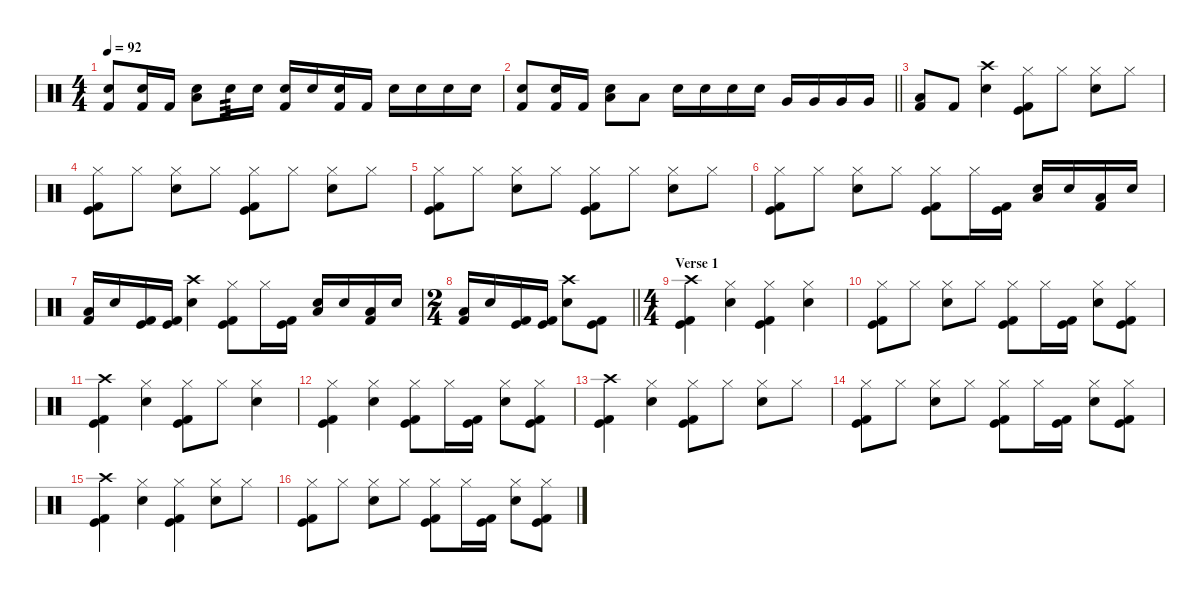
\defaultSystemsLayout 4
\hideDynamics
\bracketExtendMode nobrackets
\singleTrackTrackNamePolicy hidden
\multiTrackTrackNamePolicy hidden
\otherSystemsTrackNameOrientation horizontal
\track ("Lars" "drm.") {instrument percussion}
\staff {score}
\articulation defaults
\ts (4 4)
\tempo 92
\clef neutral
\ks c
("Snare (hit) 2" "Kick (hit) 2").8{dy f beam Up} ("Snare (hit) 2" "Kick (hit) 2").16{beam Up} "Kick (hit) 2".16{beam Up} ("Snare (hit) 2" "Low Tom (hit)").8{beam Down} "Snare (hit) 2".16{tp 3 beam Down} "Snare (hit) 2".16{beam Down} ("Snare (hit) 2" "Kick (hit) 2").16{beam Up} "Snare (hit) 2".16{beam Up} ("Snare (hit) 2" "Kick (hit) 2").16{beam Up} "Kick (hit) 2".16{beam Up} "Snare (hit) 2".16{beam Down} "Snare (hit) 2".16{beam Down} "Snare (hit) 2".16{beam Down} "Snare (hit) 2".16{beam Down} |
\barLineRight lightlight
("Snare (hit) 2" "Kick (hit) 2").8{beam Up} ("Snare (hit) 2" "Kick (hit) 2").16{beam Up} "Kick (hit) 2".16{beam Up} ("Snare (hit) 2" "Low Tom (hit)").8{beam Down} "Low Tom (hit)".8{beam Down} "Snare (hit) 2".16{beam Down} "Snare (hit) 2".16{beam Down} "Snare (hit) 2".16{beam Down} "Snare (hit) 2".16{beam Down} "Very Low Tom (hit)".16{beam Up} "Very Low Tom (hit)".16{beam Up} "Very Low Tom (hit)".16{beam Up} "Very Low Tom (hit)".16{beam Up} |
\section ("" "")
("Kick (hit) 2" "Low Tom (hit)").8{beam Up} "Kick (hit) 2".8{beam Up} ("Crash high (hit)" "Snare (hit) 2").4{beam Down} ("Hi-Hat (closed)" "Kick (hit)" "Kick (hit) 2").8{beam Down} "Hi-Hat (closed)".8{beam Down} ("Hi-Hat (closed)" "Snare (hit) 2").8{beam Down} "Hi-Hat (closed)".8{beam Down} |
("Hi-Hat (closed)" "Kick (hit)" "Kick (hit) 2").8{beam Down} "Hi-Hat (closed)".8{beam Down} ("Hi-Hat (closed)" "Snare (hit) 2").8{beam Down} "Hi-Hat (closed)".8{beam Down} ("Hi-Hat (closed)" "Kick (hit)" "Kick (hit) 2").8{beam Down} "Hi-Hat (closed)".8{beam Down} ("Hi-Hat (closed)" "Snare (hit) 2").8{beam Down} "Hi-Hat (closed)".8{beam Down} |
("Hi-Hat (closed)" "Kick (hit)" "Kick (hit) 2").8{beam Down} "Hi-Hat (closed)".8{beam Down} ("Hi-Hat (closed)" "Snare (hit) 2").8{beam Down} "Hi-Hat (closed)".8{beam Down} ("Hi-Hat (closed)" "Kick (hit)" "Kick (hit) 2").8{beam Down} "Hi-Hat (closed)".8{beam Down} ("Hi-Hat (closed)" "Snare (hit) 2").8{beam Down} "Hi-Hat (closed)".8{beam Down} |
("Hi-Hat (closed)" "Kick (hit)" "Kick (hit) 2").8{beam Down} "Hi-Hat (closed)".8{beam Down} ("Hi-Hat (closed)" "Snare (hit) 2").8{beam Down} "Hi-Hat (closed)".8{beam Down} ("Hi-Hat (closed)" "Kick (hit)" "Kick (hit) 2").8{beam Down} "Hi-Hat (closed)".16{beam Down} ("Kick (hit)" "Kick (hit) 2").16{beam Down} ("Snare (hit) 2" "Low Floor Tom (hit)").16{beam Up} "Snare (hit) 2".16{beam Up} ("Kick (hit) 2" "Low Floor Tom (hit)").16{beam Up} "Snare (hit) 2".16{beam Up} |
("Kick (hit) 2" "Low Floor Tom (hit)").16{beam Up} "Snare (hit) 2".16{beam Up} ("Kick (hit)" "Kick (hit) 2").16{beam Up} ("Kick (hit)" "Kick (hit) 2").16{beam Up} ("Crash high (hit)" "Snare (hit) 2").4{beam Down} ("Hi-Hat (closed)" "Kick (hit)" "Kick (hit) 2").8{beam Down} "Hi-Hat (closed)".16{beam Down} ("Kick (hit)" "Kick (hit) 2").16{beam Down} ("Snare (hit) 2" "Low Floor Tom (hit)").16{beam Up} "Snare (hit) 2".16{beam Up} ("Kick (hit) 2" "Low Floor Tom (hit)").16{beam Up} "Snare (hit) 2".16{beam Up} |
\ts (2 4)
\beaming (8 2 2)
\barLineRight lightlight
("Kick (hit) 2" "Low Floor Tom (hit)").16{beam Up} "Snare (hit) 2".16{beam Up} ("Kick (hit)" "Kick (hit) 2").16{beam Up} ("Kick (hit)" "Kick (hit) 2").16{beam Up} ("Crash high (hit)" "Snare (hit) 2").8{beam Down} ("Kick (hit)" "Kick (hit) 2").8{beam Down} |
\ts (4 4)
\beaming (8 2 2 2 2)
\section ("" "Verse 1")
("Crash high (hit)" "Kick (hit)" "Kick (hit) 2").4{beam Down} ("Hi-Hat (closed)" "Snare (hit) 2").4{beam Down} ("Hi-Hat (closed)" "Kick (hit)" "Kick (hit) 2").4{beam Down} ("Hi-Hat (closed)" "Snare (hit) 2").4{beam Down} |
("Hi-Hat (closed)" "Kick (hit)" "Kick (hit) 2").8{beam Down} "Hi-Hat (closed)".8{beam Down} ("Hi-Hat (closed)" "Snare (hit) 2").8{beam Down} "Hi-Hat (closed)".8{beam Down} ("Hi-Hat (closed)" "Kick (hit)" "Kick (hit) 2").8{beam Down} "Hi-Hat (closed)".16{beam Down} ("Kick (hit)" "Kick (hit) 2").16{beam Down} ("Hi-Hat (closed)" "Snare (hit) 2").8{beam Down} ("Hi-Hat (closed)" "Kick (hit)" "Kick (hit) 2").8{beam Down} |
("Crash high (hit)" "Kick (hit)" "Kick (hit) 2").4{beam Down} ("Hi-Hat (closed)" "Snare (hit) 2").4{beam Down} ("Hi-Hat (closed)" "Kick (hit)" "Kick (hit) 2").8{beam Down} "Hi-Hat (closed)".8{beam Down} ("Hi-Hat (closed)" "Snare (hit) 2").4{beam Down} |
("Hi-Hat (closed)" "Kick (hit)" "Kick (hit) 2").4{beam Down} ("Hi-Hat (closed)" "Snare (hit) 2").4{beam Down} ("Hi-Hat (closed)" "Kick (hit)" "Kick (hit) 2").8{beam Down} "Hi-Hat (closed)".16{beam Down} ("Kick (hit)" "Kick (hit) 2").16{beam Down} ("Hi-Hat (closed)" "Snare (hit) 2").8{beam Down} ("Hi-Hat (closed)" "Kick (hit)" "Kick (hit) 2").8{beam Down} |
("Crash high (hit)" "Kick (hit)" "Kick (hit) 2").4{beam Down} ("Hi-Hat (closed)" "Snare (hit) 2").4{beam Down} ("Hi-Hat (closed)" "Kick (hit)" "Kick (hit) 2").8{beam Down} "Hi-Hat (closed)".8{beam Down} ("Hi-Hat (closed)" "Snare (hit) 2").8{beam Down} "Hi-Hat (closed)".8{beam Down} |
("Hi-Hat (closed)" "Kick (hit)" "Kick (hit) 2").8{beam Down} "Hi-Hat (closed)".8{beam Down} ("Hi-Hat (closed)" "Snare (hit) 2").8{beam Down} "Hi-Hat (closed)".8{beam Down} ("Hi-Hat (closed)" "Kick (hit)" "Kick (hit) 2").8{beam Down} "Hi-Hat (closed)".16{beam Down} ("Kick (hit)" "Kick (hit) 2").16{beam Down} ("Hi-Hat (closed)" "Snare (hit) 2").8{beam Down} ("Hi-Hat (closed)" "Kick (hit)" "Kick (hit) 2").8{beam Down} |
("Crash high (hit)" "Kick (hit)" "Kick (hit) 2").4{beam Down} ("Hi-Hat (closed)" "Snare (hit) 2").4{beam Down} ("Hi-Hat (closed)" "Kick (hit)" "Kick (hit) 2").4{beam Down} ("Hi-Hat (closed)" "Snare (hit) 2").8{beam Down} "Hi-Hat (closed)".8{beam Down} |
("Hi-Hat (closed)" "Kick (hit)" "Kick (hit) 2").8{beam Down} "Hi-Hat (closed)".8{beam Down} ("Hi-Hat (closed)" "Snare (hit) 2").8{beam Down} "Hi-Hat (closed)".8{beam Down} ("Hi-Hat (closed)" "Kick (hit)" "Kick (hit) 2").8{beam Down} "Hi-Hat (closed)".16{beam Down} ("Kick (hit)" "Kick (hit) 2").16{beam Down} ("Hi-Hat (closed)" "Snare (hit) 2").8{beam Down} ("Hi-Hat (closed)" "Kick (hit)" "Kick (hit) 2").8{beam Down}
